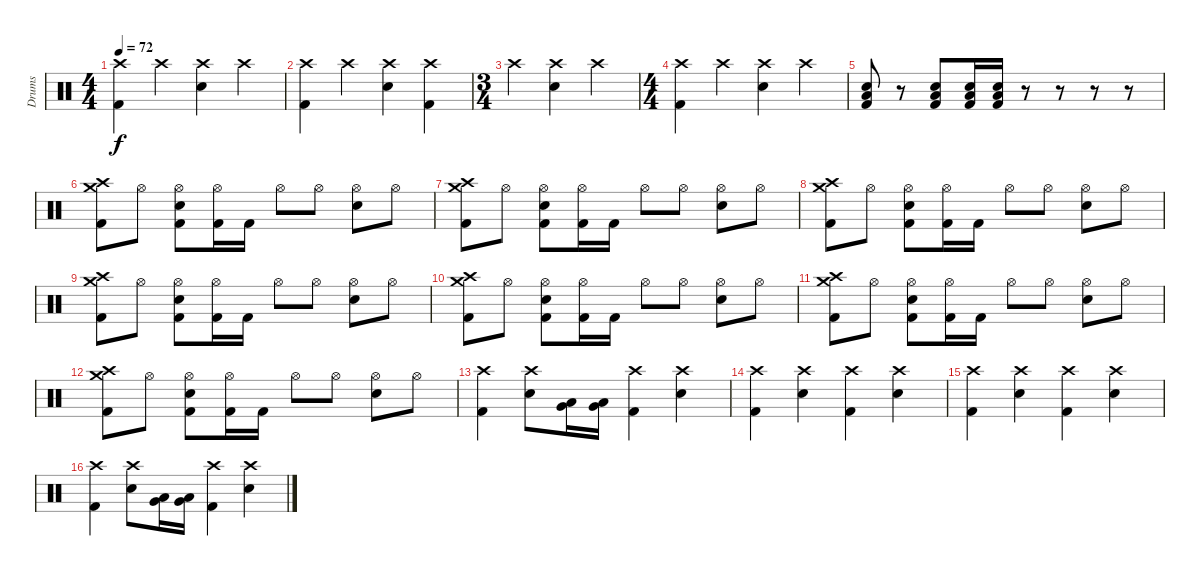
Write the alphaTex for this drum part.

\track ("Drums" "Drums") {instrument percussion}
\staff {score}
\articulation defaults
\ts (4 4)
\tempo 72
\clef neutral
\ks c
("Crash high (hit)" "Kick (hit) 2").4{dy f} "Crash high (hit)".4 ("Crash high (hit)" "Snare (hit) 2").4 "Crash high (hit)".4 |
("Crash high (hit)" "Kick (hit) 2").4 "Crash high (hit)".4 ("Crash high (hit)" "Snare (hit) 2").4 ("Crash high (hit)" "Kick (hit) 2").4 |
\ts (3 4)
"Crash high (hit)".4 ("Crash high (hit)" "Snare (hit) 2").4 "Crash high (hit)".4 |
\ts (4 4)
("Crash high (hit)" "Kick (hit) 2").4 "Crash high (hit)".4 ("Crash high (hit)" "Snare (hit) 2").4 "Crash high (hit)".4 |
("Low Floor Tom (hit)" "Electric Snare (hit)" "Kick (hit) 2").8 r.8 ("Low Floor Tom (hit)" "Electric Snare (hit)" "Kick (hit) 2").8 ("Low Floor Tom (hit)" "Electric Snare (hit)" "Kick (hit) 2").16 ("Low Floor Tom (hit)" "Electric Snare (hit)" "Kick (hit) 2").16 r.8 r.8 r.8 r.8 |
("Crash medium (hit)" "Crash high (hit)" "Kick (hit) 2").8 "Hi-Hat (open)".8 ("Hi-Hat (open)" "Electric Snare (hit)" "Kick (hit) 2").8 ("Hi-Hat (open)" "Kick (hit) 2").16 "Kick (hit) 2".16 "Hi-Hat (open)".8 "Hi-Hat (open)".8 ("Hi-Hat (open)" "Electric Snare (hit)").8 "Hi-Hat (open)".8 |
("Crash medium (hit)" "Crash high (hit)" "Kick (hit) 2").8 "Hi-Hat (open)".8 ("Hi-Hat (open)" "Electric Snare (hit)" "Kick (hit) 2").8 ("Hi-Hat (open)" "Kick (hit) 2").16 "Kick (hit) 2".16 "Hi-Hat (open)".8 "Hi-Hat (open)".8 ("Hi-Hat (open)" "Electric Snare (hit)").8 "Hi-Hat (open)".8 |
("Crash medium (hit)" "Crash high (hit)" "Kick (hit) 2").8 "Hi-Hat (open)".8 ("Hi-Hat (open)" "Electric Snare (hit)" "Kick (hit) 2").8 ("Hi-Hat (open)" "Kick (hit) 2").16 "Kick (hit) 2".16 "Hi-Hat (open)".8 "Hi-Hat (open)".8 ("Hi-Hat (open)" "Electric Snare (hit)").8 "Hi-Hat (open)".8 |
("Crash medium (hit)" "Crash high (hit)" "Kick (hit) 2").8 "Hi-Hat (open)".8 ("Hi-Hat (open)" "Electric Snare (hit)" "Kick (hit) 2").8 ("Hi-Hat (open)" "Kick (hit) 2").16 "Kick (hit) 2".16 "Hi-Hat (open)".8 "Hi-Hat (open)".8 ("Hi-Hat (open)" "Electric Snare (hit)").8 "Hi-Hat (open)".8 |
("Crash medium (hit)" "Crash high (hit)" "Kick (hit) 2").8 "Hi-Hat (open)".8 ("Hi-Hat (open)" "Electric Snare (hit)" "Kick (hit) 2").8 ("Hi-Hat (open)" "Kick (hit) 2").16 "Kick (hit) 2".16 "Hi-Hat (open)".8 "Hi-Hat (open)".8 ("Hi-Hat (open)" "Electric Snare (hit)").8 "Hi-Hat (open)".8 |
("Crash medium (hit)" "Crash high (hit)" "Kick (hit) 2").8 "Hi-Hat (open)".8 ("Hi-Hat (open)" "Electric Snare (hit)" "Kick (hit) 2").8 ("Hi-Hat (open)" "Kick (hit) 2").16 "Kick (hit) 2".16 "Hi-Hat (open)".8 "Hi-Hat (open)".8 ("Hi-Hat (open)" "Electric Snare (hit)").8 "Hi-Hat (open)".8 |
("Crash medium (hit)" "Crash high (hit)" "Kick (hit) 2").8 "Hi-Hat (open)".8 ("Hi-Hat (open)" "Electric Snare (hit)" "Kick (hit) 2").8 ("Hi-Hat (open)" "Kick (hit) 2").16 "Kick (hit) 2".16 "Hi-Hat (open)".8 "Hi-Hat (open)".8 ("Hi-Hat (open)" "Electric Snare (hit)").8 "Hi-Hat (open)".8 |
("Crash high (hit)" "Kick (hit) 2").4 ("Crash high (hit)" "Snare (hit) 2").8 ("Low Floor Tom (hit)" "Very Low Tom (hit)").16 ("Low Floor Tom (hit)" "Very Low Tom (hit)").16 ("Crash high (hit)" "Kick (hit) 2").4 ("Crash high (hit)" "Snare (hit) 2").4 |
("Crash high (hit)" "Kick (hit) 2").4 ("Crash high (hit)" "Snare (hit) 2").4 ("Crash high (hit)" "Kick (hit) 2").4 ("Crash high (hit)" "Snare (hit) 2").4 |
("Crash high (hit)" "Kick (hit) 2").4 ("Crash high (hit)" "Snare (hit) 2").4 ("Crash high (hit)" "Kick (hit) 2").4 ("Crash high (hit)" "Snare (hit) 2").4 |
("Crash high (hit)" "Kick (hit) 2").4 ("Crash high (hit)" "Snare (hit) 2").8 ("Low Floor Tom (hit)" "Very Low Tom (hit)").16 ("Low Floor Tom (hit)" "Very Low Tom (hit)").16 ("Crash high (hit)" "Kick (hit) 2").4 ("Crash high (hit)" "Snare (hit) 2").4
